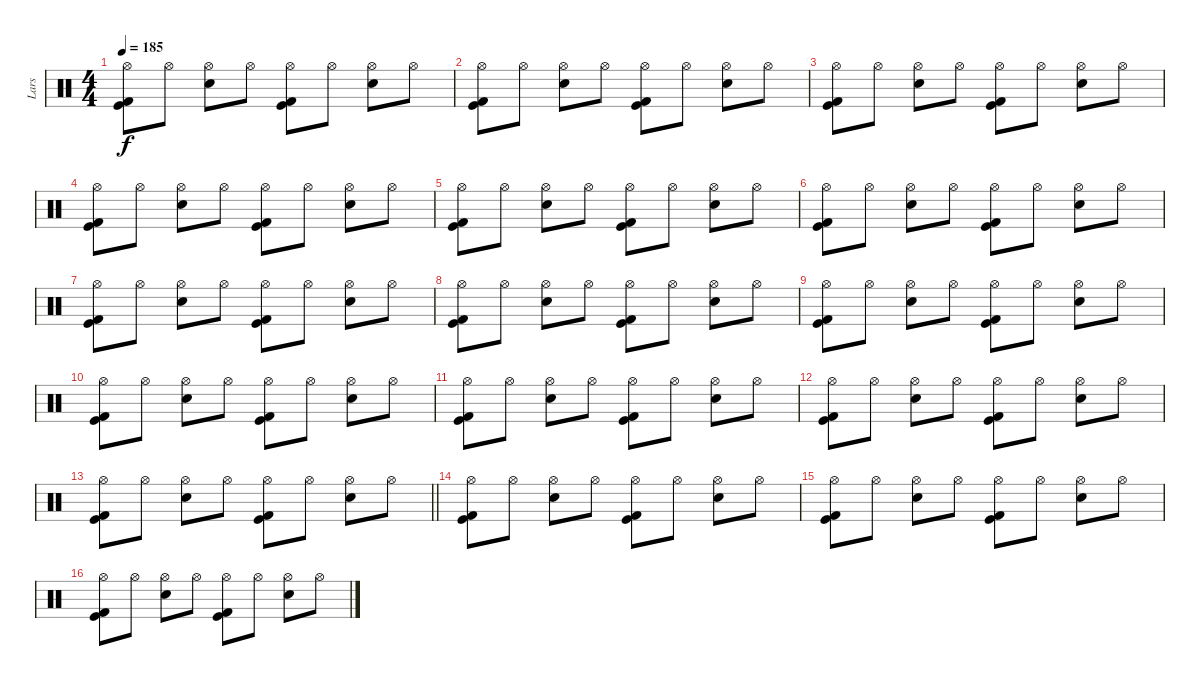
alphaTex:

\track ("Lars" "Lars") {instrument percussion}
\staff {score}
\articulation defaults
\ts (4 4)
\tempo 185
\clef neutral
\ks c
("Hi-Hat (open)" "Kick (hit)" "Kick (hit) 2").8{dy f} "Hi-Hat (open)".8 ("Hi-Hat (open)" "Electric Snare (hit)").8 "Hi-Hat (open)".8 ("Hi-Hat (open)" "Kick (hit)" "Kick (hit) 2").8 "Hi-Hat (open)".8 ("Hi-Hat (open)" "Electric Snare (hit)").8 "Hi-Hat (open)".8 |
("Hi-Hat (open)" "Kick (hit)" "Kick (hit) 2").8 "Hi-Hat (open)".8 ("Hi-Hat (open)" "Electric Snare (hit)").8 "Hi-Hat (open)".8 ("Hi-Hat (open)" "Kick (hit)" "Kick (hit) 2").8 "Hi-Hat (open)".8 ("Hi-Hat (open)" "Electric Snare (hit)").8 "Hi-Hat (open)".8 |
("Hi-Hat (open)" "Kick (hit)" "Kick (hit) 2").8 "Hi-Hat (open)".8 ("Hi-Hat (open)" "Electric Snare (hit)").8 "Hi-Hat (open)".8 ("Hi-Hat (open)" "Kick (hit)" "Kick (hit) 2").8 "Hi-Hat (open)".8 ("Hi-Hat (open)" "Electric Snare (hit)").8 "Hi-Hat (open)".8 |
("Hi-Hat (open)" "Kick (hit)" "Kick (hit) 2").8 "Hi-Hat (open)".8 ("Hi-Hat (open)" "Electric Snare (hit)").8 "Hi-Hat (open)".8 ("Hi-Hat (open)" "Kick (hit)" "Kick (hit) 2").8 "Hi-Hat (open)".8 ("Hi-Hat (open)" "Electric Snare (hit)").8 "Hi-Hat (open)".8 |
("Hi-Hat (open)" "Kick (hit)" "Kick (hit) 2").8 "Hi-Hat (open)".8 ("Hi-Hat (open)" "Electric Snare (hit)").8 "Hi-Hat (open)".8 ("Hi-Hat (open)" "Kick (hit)" "Kick (hit) 2").8 "Hi-Hat (open)".8 ("Hi-Hat (open)" "Electric Snare (hit)").8 "Hi-Hat (open)".8 |
("Hi-Hat (open)" "Kick (hit)" "Kick (hit) 2").8 "Hi-Hat (open)".8 ("Hi-Hat (open)" "Electric Snare (hit)").8 "Hi-Hat (open)".8 ("Hi-Hat (open)" "Kick (hit)" "Kick (hit) 2").8 "Hi-Hat (open)".8 ("Hi-Hat (open)" "Electric Snare (hit)").8 "Hi-Hat (open)".8 |
("Hi-Hat (open)" "Kick (hit)" "Kick (hit) 2").8 "Hi-Hat (open)".8 ("Hi-Hat (open)" "Electric Snare (hit)").8 "Hi-Hat (open)".8 ("Hi-Hat (open)" "Kick (hit)" "Kick (hit) 2").8 "Hi-Hat (open)".8 ("Hi-Hat (open)" "Electric Snare (hit)").8 "Hi-Hat (open)".8 |
("Hi-Hat (open)" "Kick (hit)" "Kick (hit) 2").8 "Hi-Hat (open)".8 ("Hi-Hat (open)" "Electric Snare (hit)").8 "Hi-Hat (open)".8 ("Hi-Hat (open)" "Kick (hit)" "Kick (hit) 2").8 "Hi-Hat (open)".8 ("Hi-Hat (open)" "Electric Snare (hit)").8 "Hi-Hat (open)".8 |
("Hi-Hat (open)" "Kick (hit)" "Kick (hit) 2").8 "Hi-Hat (open)".8 ("Hi-Hat (open)" "Electric Snare (hit)").8 "Hi-Hat (open)".8 ("Hi-Hat (open)" "Kick (hit)" "Kick (hit) 2").8 "Hi-Hat (open)".8 ("Hi-Hat (open)" "Electric Snare (hit)").8 "Hi-Hat (open)".8 |
("Hi-Hat (open)" "Kick (hit)" "Kick (hit) 2").8 "Hi-Hat (open)".8 ("Hi-Hat (open)" "Electric Snare (hit)").8 "Hi-Hat (open)".8 ("Hi-Hat (open)" "Kick (hit)" "Kick (hit) 2").8 "Hi-Hat (open)".8 ("Hi-Hat (open)" "Electric Snare (hit)").8 "Hi-Hat (open)".8 |
("Hi-Hat (open)" "Kick (hit)" "Kick (hit) 2").8 "Hi-Hat (open)".8 ("Hi-Hat (open)" "Electric Snare (hit)").8 "Hi-Hat (open)".8 ("Hi-Hat (open)" "Kick (hit)" "Kick (hit) 2").8 "Hi-Hat (open)".8 ("Hi-Hat (open)" "Electric Snare (hit)").8 "Hi-Hat (open)".8 |
("Hi-Hat (open)" "Kick (hit)" "Kick (hit) 2").8 "Hi-Hat (open)".8 ("Hi-Hat (open)" "Electric Snare (hit)").8 "Hi-Hat (open)".8 ("Hi-Hat (open)" "Kick (hit)" "Kick (hit) 2").8 "Hi-Hat (open)".8 ("Hi-Hat (open)" "Electric Snare (hit)").8 "Hi-Hat (open)".8 |
\barLineRight lightlight
("Hi-Hat (open)" "Kick (hit)" "Kick (hit) 2").8 "Hi-Hat (open)".8 ("Hi-Hat (open)" "Electric Snare (hit)").8 "Hi-Hat (open)".8 ("Hi-Hat (open)" "Kick (hit)" "Kick (hit) 2").8 "Hi-Hat (open)".8 ("Hi-Hat (open)" "Electric Snare (hit)").8 "Hi-Hat (open)".8 |
\section ("" "")
("Hi-Hat (open)" "Kick (hit)" "Kick (hit) 2").8 "Hi-Hat (open)".8 ("Hi-Hat (open)" "Electric Snare (hit)").8 "Hi-Hat (open)".8 ("Hi-Hat (open)" "Kick (hit)" "Kick (hit) 2").8 "Hi-Hat (open)".8 ("Hi-Hat (open)" "Electric Snare (hit)").8 "Hi-Hat (open)".8 |
("Hi-Hat (open)" "Kick (hit)" "Kick (hit) 2").8 "Hi-Hat (open)".8 ("Hi-Hat (open)" "Electric Snare (hit)").8 "Hi-Hat (open)".8 ("Hi-Hat (open)" "Kick (hit)" "Kick (hit) 2").8 "Hi-Hat (open)".8 ("Hi-Hat (open)" "Electric Snare (hit)").8 "Hi-Hat (open)".8 |
("Hi-Hat (open)" "Kick (hit)" "Kick (hit) 2").8 "Hi-Hat (open)".8 ("Hi-Hat (open)" "Electric Snare (hit)").8 "Hi-Hat (open)".8 ("Hi-Hat (open)" "Kick (hit)" "Kick (hit) 2").8 "Hi-Hat (open)".8 ("Hi-Hat (open)" "Electric Snare (hit)").8 "Hi-Hat (open)".8
